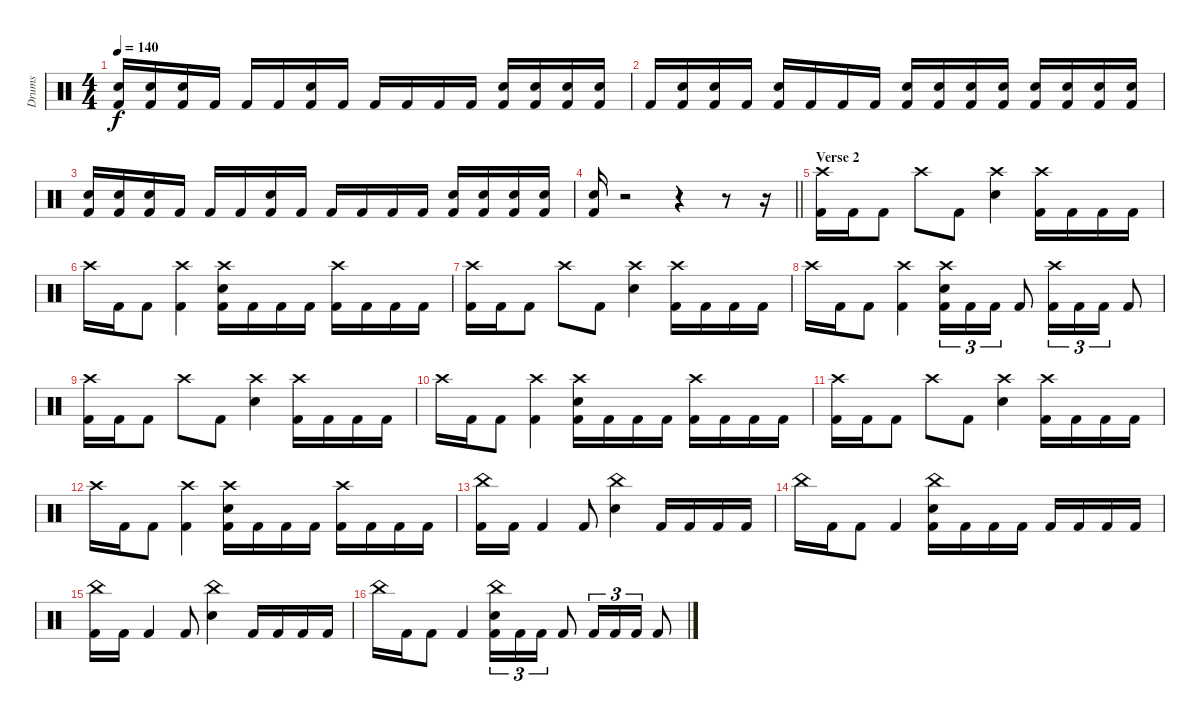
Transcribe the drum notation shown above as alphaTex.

\track ("Drums" "Drums") {instrument percussion}
\staff {score}
\articulation defaults
\ts (4 4)
\tempo 140
\clef neutral
\ks c
("Electric Snare (hit)" "Kick (hit) 2").16{dy f} ("Electric Snare (hit)" "Kick (hit) 2").16 ("Electric Snare (hit)" "Kick (hit) 2").16 "Kick (hit) 2".16 "Kick (hit) 2".16 "Kick (hit) 2".16 ("Electric Snare (hit)" "Kick (hit) 2").16 "Kick (hit) 2".16 "Kick (hit) 2".16 "Kick (hit) 2".16 "Kick (hit) 2".16 "Kick (hit) 2".16 ("Electric Snare (hit)" "Kick (hit) 2").16 ("Electric Snare (hit)" "Kick (hit) 2").16 ("Electric Snare (hit)" "Kick (hit) 2").16 ("Electric Snare (hit)" "Kick (hit) 2").16 |
"Kick (hit) 2".16 ("Electric Snare (hit)" "Kick (hit) 2").16 ("Electric Snare (hit)" "Kick (hit) 2").16 "Kick (hit) 2".16 ("Electric Snare (hit)" "Kick (hit) 2").16 "Kick (hit) 2".16 "Kick (hit) 2".16 "Kick (hit) 2".16 ("Electric Snare (hit)" "Kick (hit) 2").16 ("Electric Snare (hit)" "Kick (hit) 2").16 ("Electric Snare (hit)" "Kick (hit) 2").16 ("Electric Snare (hit)" "Kick (hit) 2").16 ("Electric Snare (hit)" "Kick (hit) 2").16 ("Electric Snare (hit)" "Kick (hit) 2").16 ("Electric Snare (hit)" "Kick (hit) 2").16 ("Electric Snare (hit)" "Kick (hit) 2").16 |
("Electric Snare (hit)" "Kick (hit) 2").16 ("Electric Snare (hit)" "Kick (hit) 2").16 ("Electric Snare (hit)" "Kick (hit) 2").16 "Kick (hit) 2".16 "Kick (hit) 2".16 "Kick (hit) 2".16 ("Electric Snare (hit)" "Kick (hit) 2").16 "Kick (hit) 2".16 "Kick (hit) 2".16 "Kick (hit) 2".16 "Kick (hit) 2".16 "Kick (hit) 2".16 ("Electric Snare (hit)" "Kick (hit) 2").16 ("Electric Snare (hit)" "Kick (hit) 2").16 ("Electric Snare (hit)" "Kick (hit) 2").16 ("Electric Snare (hit)" "Kick (hit) 2").16 |
\barLineRight lightlight
("Electric Snare (hit)" "Kick (hit) 2").16 r.2 r.4 r.8 r.16 |
\section ("" "Verse 2")
("Crash high (hit)" "Kick (hit) 2").16 "Kick (hit) 2".16 "Kick (hit) 2".8 "Crash high (hit)".8 "Kick (hit) 2".8 ("Crash high (hit)" "Electric Snare (hit)").4 ("Crash high (hit)" "Kick (hit) 2").16 "Kick (hit) 2".16 "Kick (hit) 2".16 "Kick (hit) 2".16 |
"Crash high (hit)".16 "Kick (hit) 2".16 "Kick (hit) 2".8 ("Crash high (hit)" "Kick (hit) 2").4 ("Crash high (hit)" "Electric Snare (hit)" "Kick (hit) 2").16 "Kick (hit) 2".16 "Kick (hit) 2".16 "Kick (hit) 2".16 ("Crash high (hit)" "Kick (hit) 2").16 "Kick (hit) 2".16 "Kick (hit) 2".16 "Kick (hit) 2".16 |
("Crash high (hit)" "Kick (hit) 2").16 "Kick (hit) 2".16 "Kick (hit) 2".8 "Crash high (hit)".8 "Kick (hit) 2".8 ("Crash high (hit)" "Electric Snare (hit)").4 ("Crash high (hit)" "Kick (hit) 2").16 "Kick (hit) 2".16 "Kick (hit) 2".16 "Kick (hit) 2".16 |
"Crash high (hit)".16 "Kick (hit) 2".16 "Kick (hit) 2".8 ("Crash high (hit)" "Kick (hit) 2").4 ("Crash high (hit)" "Electric Snare (hit)" "Kick (hit) 2").16{tu (3 2)} "Kick (hit) 2".16{tu (3 2)} "Kick (hit) 2".16{tu (3 2)} "Kick (hit) 2".8 ("Crash high (hit)" "Kick (hit) 2").16{tu (3 2)} "Kick (hit) 2".16{tu (3 2)} "Kick (hit) 2".16{tu (3 2)} "Kick (hit) 2".8 |
("Crash high (hit)" "Kick (hit) 2").16 "Kick (hit) 2".16 "Kick (hit) 2".8 "Crash high (hit)".8 "Kick (hit) 2".8 ("Crash high (hit)" "Electric Snare (hit)").4 ("Crash high (hit)" "Kick (hit) 2").16 "Kick (hit) 2".16 "Kick (hit) 2".16 "Kick (hit) 2".16 |
"Crash high (hit)".16 "Kick (hit) 2".16 "Kick (hit) 2".8 ("Crash high (hit)" "Kick (hit) 2").4 ("Crash high (hit)" "Electric Snare (hit)" "Kick (hit) 2").16 "Kick (hit) 2".16 "Kick (hit) 2".16 "Kick (hit) 2".16 ("Crash high (hit)" "Kick (hit) 2").16 "Kick (hit) 2".16 "Kick (hit) 2".16 "Kick (hit) 2".16 |
("Crash high (hit)" "Kick (hit) 2").16 "Kick (hit) 2".16 "Kick (hit) 2".8 "Crash high (hit)".8 "Kick (hit) 2".8 ("Crash high (hit)" "Electric Snare (hit)").4 ("Crash high (hit)" "Kick (hit) 2").16 "Kick (hit) 2".16 "Kick (hit) 2".16 "Kick (hit) 2".16 |
"Crash high (hit)".16 "Kick (hit) 2".16 "Kick (hit) 2".8 ("Crash high (hit)" "Kick (hit) 2").4 ("Crash high (hit)" "Electric Snare (hit)" "Kick (hit) 2").16 "Kick (hit) 2".16 "Kick (hit) 2".16 "Kick (hit) 2".16 ("Crash high (hit)" "Kick (hit) 2").16 "Kick (hit) 2".16 "Kick (hit) 2".16 "Kick (hit) 2".16 |
("China (hit)" "Kick (hit) 2").16 "Kick (hit) 2".16 "Kick (hit) 2".4 "Kick (hit) 2".8 ("China (hit)" "Electric Snare (hit)").4 "Kick (hit) 2".16 "Kick (hit) 2".16 "Kick (hit) 2".16 "Kick (hit) 2".16 |
"China (hit)".16 "Kick (hit) 2".16 "Kick (hit) 2".8 "Kick (hit) 2".4 ("China (hit)" "Electric Snare (hit)" "Kick (hit) 2").16 "Kick (hit) 2".16 "Kick (hit) 2".16 "Kick (hit) 2".16 "Kick (hit) 2".16 "Kick (hit) 2".16 "Kick (hit) 2".16 "Kick (hit) 2".16 |
("China (hit)" "Kick (hit) 2").16 "Kick (hit) 2".16 "Kick (hit) 2".4 "Kick (hit) 2".8 ("China (hit)" "Electric Snare (hit)").4 "Kick (hit) 2".16 "Kick (hit) 2".16 "Kick (hit) 2".16 "Kick (hit) 2".16 |
"China (hit)".16 "Kick (hit) 2".16 "Kick (hit) 2".8 "Kick (hit) 2".4 ("China (hit)" "Electric Snare (hit)" "Kick (hit) 2").16{tu (3 2)} "Kick (hit) 2".16{tu (3 2)} "Kick (hit) 2".16{tu (3 2)} "Kick (hit) 2".8 "Kick (hit) 2".16{tu (3 2)} "Kick (hit) 2".16{tu (3 2)} "Kick (hit) 2".16{tu (3 2)} "Kick (hit) 2".8
